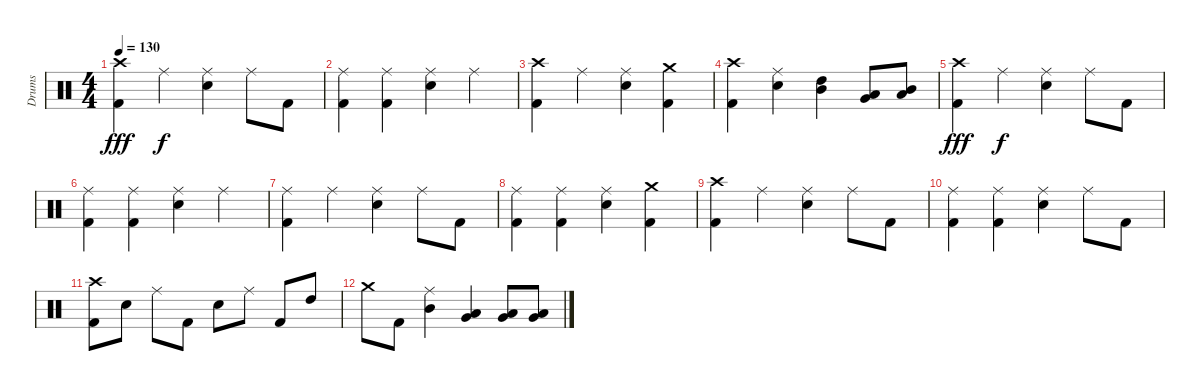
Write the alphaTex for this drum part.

\track ("Drums" "Drums") {instrument percussion}
\staff {score}
\articulation defaults
\ts (4 4)
\tempo 130
\clef neutral
\ks c
("Crash high (hit)" "Kick (hit) 2").4{dy fff} "Ride (middle)".4{dy f} ("Ride (middle)" "Electric Snare (hit)").4 "Ride (middle)".8 "Kick (hit) 2".8 |
("Ride (middle)" "Kick (hit) 2").4 ("Ride (middle)" "Kick (hit) 2").4 ("Ride (middle)" "Electric Snare (hit)").4 "Ride (middle)".4 |
("Crash high (hit)" "Kick (hit) 2").4 "Ride (middle)".4 ("Ride (middle)" "Electric Snare (hit)").4 ("Crash medium (hit)" "Kick (hit) 2").4 |
("Crash high (hit)" "Kick (hit) 2").4 ("Ride (middle)" "Electric Snare (hit)").4 ("High Tom (hit)" "Mid Tom (hit)").4 ("Low Tom (hit)" "Very Low Tom (hit)").8 ("Mid Tom (hit)" "Low Tom (hit)").8 |
("Crash high (hit)" "Kick (hit) 2").4{dy fff} "Ride (middle)".4{dy f} ("Ride (middle)" "Electric Snare (hit)").4 "Ride (middle)".8 "Kick (hit) 2".8 |
("Ride (middle)" "Kick (hit) 2").4 ("Ride (middle)" "Kick (hit) 2").4 ("Ride (middle)" "Electric Snare (hit)").4 "Ride (middle)".4 |
("Ride (middle)" "Kick (hit) 2").4 "Ride (middle)".4 ("Ride (middle)" "Electric Snare (hit)").4 "Ride (middle)".8 "Kick (hit) 2".8 |
("Ride (middle)" "Kick (hit) 2").4 ("Ride (middle)" "Kick (hit) 2").4 ("Ride (middle)" "Electric Snare (hit)").4 ("Crash medium (hit)" "Kick (hit) 2").4 |
("Crash high (hit)" "Kick (hit) 2").4 "Ride (middle)".4 ("Ride (middle)" "Electric Snare (hit)").4 "Ride (middle)".8 "Kick (hit) 2".8 |
("Ride (middle)" "Kick (hit) 2").4 ("Ride (middle)" "Kick (hit) 2").4 ("Ride (middle)" "Electric Snare (hit)").4 "Ride (middle)".8 "Kick (hit) 2".8 |
("Crash high (hit)" "Kick (hit) 2").8 "Electric Snare (hit)".8 "Ride (middle)".8 "Kick (hit) 2".8 "Electric Snare (hit)".8 "Ride (middle)".8 "Kick (hit) 2".8 "High Tom (hit)".8 |
"Crash medium (hit)".8 "Kick (hit) 2".8 ("Ride (middle)" "Mid Tom (hit)").4 ("Low Tom (hit)" "Very Low Tom (hit)").4 ("Very Low Tom (hit)" "Low Floor Tom (hit)").8 ("Very Low Tom (hit)" "Low Floor Tom (hit)").8
